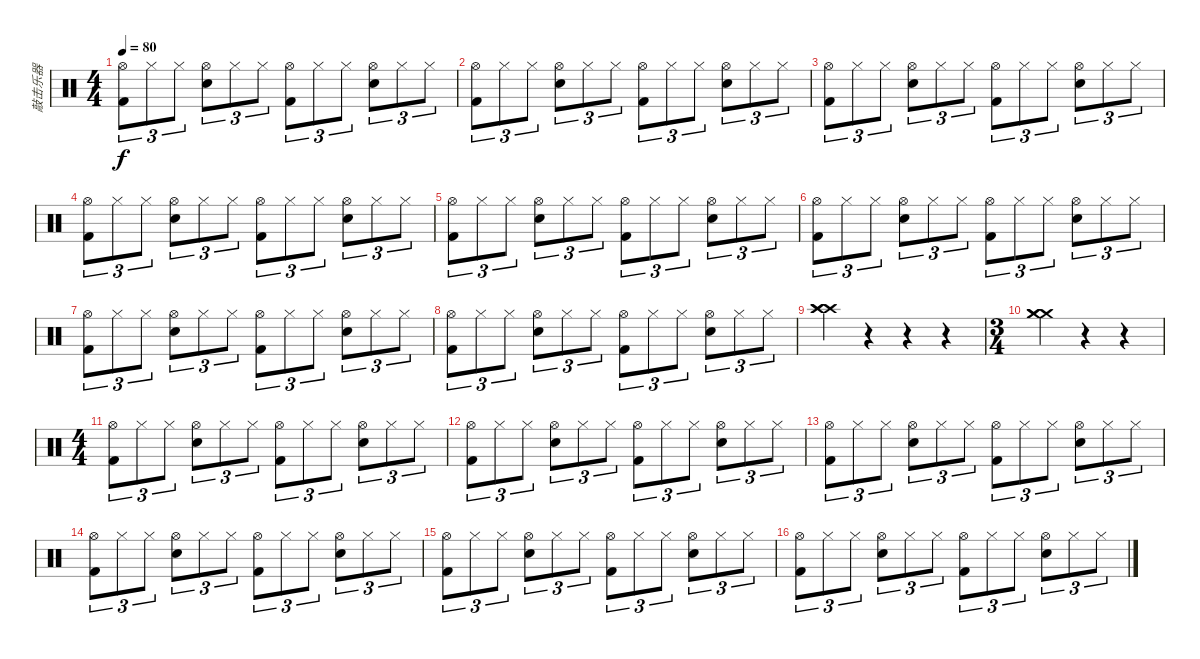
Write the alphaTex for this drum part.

\track ("敲击乐器" "敲击乐器") {instrument percussion}
\staff {score}
\articulation defaults
\ts (4 4)
\tempo 80
\clef neutral
\ks c
("Hi-Hat (open)" "Kick (hit) 2").8{tu (3 2) dy f} "Hi-Hat (closed)".8{tu (3 2)} "Hi-Hat (closed)".8{tu (3 2)} ("Hi-Hat (open)" "Electric Snare (hit)").8{tu (3 2)} "Hi-Hat (closed)".8{tu (3 2)} "Hi-Hat (closed)".8{tu (3 2)} ("Hi-Hat (open)" "Kick (hit) 2").8{tu (3 2)} "Hi-Hat (closed)".8{tu (3 2)} "Hi-Hat (closed)".8{tu (3 2)} ("Hi-Hat (open)" "Electric Snare (hit)").8{tu (3 2)} "Hi-Hat (closed)".8{tu (3 2)} "Hi-Hat (closed)".8{tu (3 2)} |
("Hi-Hat (open)" "Kick (hit) 2").8{tu (3 2)} "Hi-Hat (closed)".8{tu (3 2)} "Hi-Hat (closed)".8{tu (3 2)} ("Hi-Hat (open)" "Electric Snare (hit)").8{tu (3 2)} "Hi-Hat (closed)".8{tu (3 2)} "Hi-Hat (closed)".8{tu (3 2)} ("Hi-Hat (open)" "Kick (hit) 2").8{tu (3 2)} "Hi-Hat (closed)".8{tu (3 2)} "Hi-Hat (closed)".8{tu (3 2)} ("Hi-Hat (open)" "Electric Snare (hit)").8{tu (3 2)} "Hi-Hat (closed)".8{tu (3 2)} "Hi-Hat (closed)".8{tu (3 2)} |
("Hi-Hat (open)" "Kick (hit) 2").8{tu (3 2)} "Hi-Hat (closed)".8{tu (3 2)} "Hi-Hat (closed)".8{tu (3 2)} ("Hi-Hat (open)" "Electric Snare (hit)").8{tu (3 2)} "Hi-Hat (closed)".8{tu (3 2)} "Hi-Hat (closed)".8{tu (3 2)} ("Hi-Hat (open)" "Kick (hit) 2").8{tu (3 2)} "Hi-Hat (closed)".8{tu (3 2)} "Hi-Hat (closed)".8{tu (3 2)} ("Hi-Hat (open)" "Electric Snare (hit)").8{tu (3 2)} "Hi-Hat (closed)".8{tu (3 2)} "Hi-Hat (closed)".8{tu (3 2)} |
("Hi-Hat (open)" "Kick (hit) 2").8{tu (3 2)} "Hi-Hat (closed)".8{tu (3 2)} "Hi-Hat (closed)".8{tu (3 2)} ("Hi-Hat (open)" "Electric Snare (hit)").8{tu (3 2)} "Hi-Hat (closed)".8{tu (3 2)} "Hi-Hat (closed)".8{tu (3 2)} ("Hi-Hat (open)" "Kick (hit) 2").8{tu (3 2)} "Hi-Hat (closed)".8{tu (3 2)} "Hi-Hat (closed)".8{tu (3 2)} ("Hi-Hat (open)" "Electric Snare (hit)").8{tu (3 2)} "Hi-Hat (closed)".8{tu (3 2)} "Hi-Hat (closed)".8{tu (3 2)} |
("Hi-Hat (open)" "Kick (hit) 2").8{tu (3 2)} "Hi-Hat (closed)".8{tu (3 2)} "Hi-Hat (closed)".8{tu (3 2)} ("Hi-Hat (open)" "Electric Snare (hit)").8{tu (3 2)} "Hi-Hat (closed)".8{tu (3 2)} "Hi-Hat (closed)".8{tu (3 2)} ("Hi-Hat (open)" "Kick (hit) 2").8{tu (3 2)} "Hi-Hat (closed)".8{tu (3 2)} "Hi-Hat (closed)".8{tu (3 2)} ("Hi-Hat (open)" "Electric Snare (hit)").8{tu (3 2)} "Hi-Hat (closed)".8{tu (3 2)} "Hi-Hat (closed)".8{tu (3 2)} |
("Hi-Hat (open)" "Kick (hit) 2").8{tu (3 2)} "Hi-Hat (closed)".8{tu (3 2)} "Hi-Hat (closed)".8{tu (3 2)} ("Hi-Hat (open)" "Electric Snare (hit)").8{tu (3 2)} "Hi-Hat (closed)".8{tu (3 2)} "Hi-Hat (closed)".8{tu (3 2)} ("Hi-Hat (open)" "Kick (hit) 2").8{tu (3 2)} "Hi-Hat (closed)".8{tu (3 2)} "Hi-Hat (closed)".8{tu (3 2)} ("Hi-Hat (open)" "Electric Snare (hit)").8{tu (3 2)} "Hi-Hat (closed)".8{tu (3 2)} "Hi-Hat (closed)".8{tu (3 2)} |
("Hi-Hat (open)" "Kick (hit) 2").8{tu (3 2)} "Hi-Hat (closed)".8{tu (3 2)} "Hi-Hat (closed)".8{tu (3 2)} ("Hi-Hat (open)" "Electric Snare (hit)").8{tu (3 2)} "Hi-Hat (closed)".8{tu (3 2)} "Hi-Hat (closed)".8{tu (3 2)} ("Hi-Hat (open)" "Kick (hit) 2").8{tu (3 2)} "Hi-Hat (closed)".8{tu (3 2)} "Hi-Hat (closed)".8{tu (3 2)} ("Hi-Hat (open)" "Electric Snare (hit)").8{tu (3 2)} "Hi-Hat (closed)".8{tu (3 2)} "Hi-Hat (closed)".8{tu (3 2)} |
("Hi-Hat (open)" "Kick (hit) 2").8{tu (3 2)} "Hi-Hat (closed)".8{tu (3 2)} "Hi-Hat (closed)".8{tu (3 2)} ("Hi-Hat (open)" "Electric Snare (hit)").8{tu (3 2)} "Hi-Hat (closed)".8{tu (3 2)} "Hi-Hat (closed)".8{tu (3 2)} ("Hi-Hat (open)" "Kick (hit) 2").8{tu (3 2)} "Hi-Hat (closed)".8{tu (3 2)} "Hi-Hat (closed)".8{tu (3 2)} ("Hi-Hat (open)" "Electric Snare (hit)").8{tu (3 2)} "Hi-Hat (closed)".8{tu (3 2)} "Hi-Hat (closed)".8{tu (3 2)} |
("Crash high (hit)" "Crash high (hit)" "Crash high (hit)").4 r.4 r.4 r.4 |
\ts (3 4)
("Crash medium (hit)" "Crash medium (hit)" "Crash medium (hit)").4 r.4 r.4 |
\ts (4 4)
("Hi-Hat (open)" "Kick (hit) 2").8{tu (3 2)} "Hi-Hat (closed)".8{tu (3 2)} "Hi-Hat (closed)".8{tu (3 2)} ("Hi-Hat (open)" "Electric Snare (hit)").8{tu (3 2)} "Hi-Hat (closed)".8{tu (3 2)} "Hi-Hat (closed)".8{tu (3 2)} ("Hi-Hat (open)" "Kick (hit) 2").8{tu (3 2)} "Hi-Hat (closed)".8{tu (3 2)} "Hi-Hat (closed)".8{tu (3 2)} ("Hi-Hat (open)" "Electric Snare (hit)").8{tu (3 2)} "Hi-Hat (closed)".8{tu (3 2)} "Hi-Hat (closed)".8{tu (3 2)} |
("Hi-Hat (open)" "Kick (hit) 2").8{tu (3 2)} "Hi-Hat (closed)".8{tu (3 2)} "Hi-Hat (closed)".8{tu (3 2)} ("Hi-Hat (open)" "Electric Snare (hit)").8{tu (3 2)} "Hi-Hat (closed)".8{tu (3 2)} "Hi-Hat (closed)".8{tu (3 2)} ("Hi-Hat (open)" "Kick (hit) 2").8{tu (3 2)} "Hi-Hat (closed)".8{tu (3 2)} "Hi-Hat (closed)".8{tu (3 2)} ("Hi-Hat (open)" "Electric Snare (hit)").8{tu (3 2)} "Hi-Hat (closed)".8{tu (3 2)} "Hi-Hat (closed)".8{tu (3 2)} |
("Hi-Hat (open)" "Kick (hit) 2").8{tu (3 2)} "Hi-Hat (closed)".8{tu (3 2)} "Hi-Hat (closed)".8{tu (3 2)} ("Hi-Hat (open)" "Electric Snare (hit)").8{tu (3 2)} "Hi-Hat (closed)".8{tu (3 2)} "Hi-Hat (closed)".8{tu (3 2)} ("Hi-Hat (open)" "Kick (hit) 2").8{tu (3 2)} "Hi-Hat (closed)".8{tu (3 2)} "Hi-Hat (closed)".8{tu (3 2)} ("Hi-Hat (open)" "Electric Snare (hit)").8{tu (3 2)} "Hi-Hat (closed)".8{tu (3 2)} "Hi-Hat (closed)".8{tu (3 2)} |
("Hi-Hat (open)" "Kick (hit) 2").8{tu (3 2)} "Hi-Hat (closed)".8{tu (3 2)} "Hi-Hat (closed)".8{tu (3 2)} ("Hi-Hat (open)" "Electric Snare (hit)").8{tu (3 2)} "Hi-Hat (closed)".8{tu (3 2)} "Hi-Hat (closed)".8{tu (3 2)} ("Hi-Hat (open)" "Kick (hit) 2").8{tu (3 2)} "Hi-Hat (closed)".8{tu (3 2)} "Hi-Hat (closed)".8{tu (3 2)} ("Hi-Hat (open)" "Electric Snare (hit)").8{tu (3 2)} "Hi-Hat (closed)".8{tu (3 2)} "Hi-Hat (closed)".8{tu (3 2)} |
("Hi-Hat (open)" "Kick (hit) 2").8{tu (3 2)} "Hi-Hat (closed)".8{tu (3 2)} "Hi-Hat (closed)".8{tu (3 2)} ("Hi-Hat (open)" "Electric Snare (hit)").8{tu (3 2)} "Hi-Hat (closed)".8{tu (3 2)} "Hi-Hat (closed)".8{tu (3 2)} ("Hi-Hat (open)" "Kick (hit) 2").8{tu (3 2)} "Hi-Hat (closed)".8{tu (3 2)} "Hi-Hat (closed)".8{tu (3 2)} ("Hi-Hat (open)" "Electric Snare (hit)").8{tu (3 2)} "Hi-Hat (closed)".8{tu (3 2)} "Hi-Hat (closed)".8{tu (3 2)} |
("Hi-Hat (open)" "Kick (hit) 2").8{tu (3 2)} "Hi-Hat (closed)".8{tu (3 2)} "Hi-Hat (closed)".8{tu (3 2)} ("Hi-Hat (open)" "Electric Snare (hit)").8{tu (3 2)} "Hi-Hat (closed)".8{tu (3 2)} "Hi-Hat (closed)".8{tu (3 2)} ("Hi-Hat (open)" "Kick (hit) 2").8{tu (3 2)} "Hi-Hat (closed)".8{tu (3 2)} "Hi-Hat (closed)".8{tu (3 2)} ("Hi-Hat (open)" "Electric Snare (hit)").8{tu (3 2)} "Hi-Hat (closed)".8{tu (3 2)} "Hi-Hat (closed)".8{tu (3 2)}
